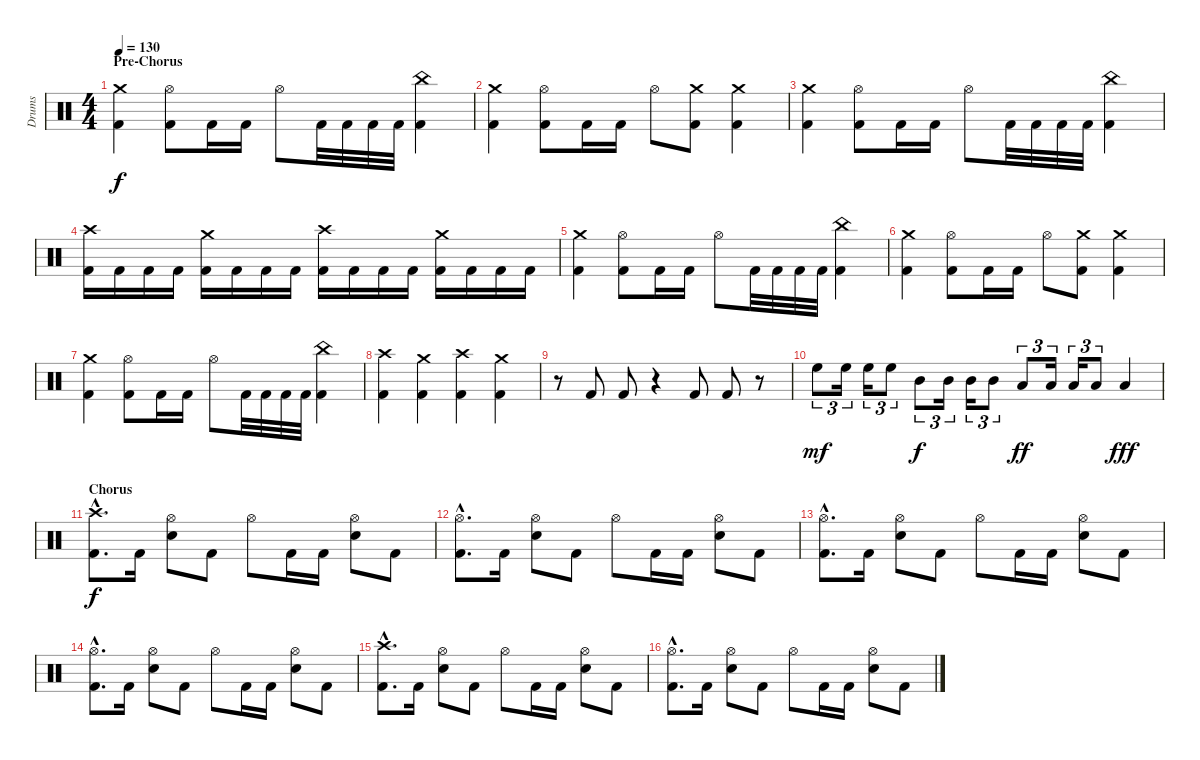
\track ("Drums" "Drums") {instrument percussion}
\staff {score}
\articulation defaults
\ts (4 4)
\section ("" "Pre-Chorus")
\tempo 130
\clef neutral
\ks c
("Crash medium (hit)" "Kick (hit) 2").4{dy f} ("Hi-Hat (open)" "Kick (hit) 2").8 "Kick (hit) 2".16 "Kick (hit) 2".16 "Hi-Hat (open)".8 "Kick (hit) 2".32 "Kick (hit) 2".32 "Kick (hit) 2".32 "Kick (hit) 2".32 ("China (hit)" "Kick (hit) 2").4 |
("Crash medium (hit)" "Kick (hit) 2").4 ("Hi-Hat (open)" "Kick (hit) 2").8 "Kick (hit) 2".16 "Kick (hit) 2".16 "Hi-Hat (open)".8 ("Crash medium (hit)" "Kick (hit) 2").8 ("Crash medium (hit)" "Kick (hit) 2").4 |
("Crash medium (hit)" "Kick (hit) 2").4 ("Hi-Hat (open)" "Kick (hit) 2").8 "Kick (hit) 2".16 "Kick (hit) 2".16 "Hi-Hat (open)".8 "Kick (hit) 2".32 "Kick (hit) 2".32 "Kick (hit) 2".32 "Kick (hit) 2".32 ("China (hit)" "Kick (hit) 2").4 |
("Crash high (hit)" "Kick (hit) 2").16 "Kick (hit) 2".16 "Kick (hit) 2".16 "Kick (hit) 2".16 ("Crash medium (hit)" "Kick (hit) 2").16 "Kick (hit) 2".16 "Kick (hit) 2".16 "Kick (hit) 2".16 ("Crash high (hit)" "Kick (hit) 2").16 "Kick (hit) 2".16 "Kick (hit) 2".16 "Kick (hit) 2".16 ("Crash medium (hit)" "Kick (hit) 2").16 "Kick (hit) 2".16 "Kick (hit) 2".16 "Kick (hit) 2".16 |
("Crash medium (hit)" "Kick (hit) 2").4 ("Hi-Hat (open)" "Kick (hit) 2").8 "Kick (hit) 2".16 "Kick (hit) 2".16 "Hi-Hat (open)".8 "Kick (hit) 2".32 "Kick (hit) 2".32 "Kick (hit) 2".32 "Kick (hit) 2".32 ("China (hit)" "Kick (hit) 2").4 |
("Crash medium (hit)" "Kick (hit) 2").4 ("Hi-Hat (open)" "Kick (hit) 2").8 "Kick (hit) 2".16 "Kick (hit) 2".16 "Hi-Hat (open)".8 ("Crash medium (hit)" "Kick (hit) 2").8 ("Crash medium (hit)" "Kick (hit) 2").4 |
("Crash medium (hit)" "Kick (hit) 2").4 ("Hi-Hat (open)" "Kick (hit) 2").8 "Kick (hit) 2".16 "Kick (hit) 2".16 "Hi-Hat (open)".8 "Kick (hit) 2".32 "Kick (hit) 2".32 "Kick (hit) 2".32 "Kick (hit) 2".32 ("China (hit)" "Kick (hit) 2").4 |
("Crash high (hit)" "Kick (hit) 2").4 ("Crash medium (hit)" "Kick (hit) 2").4 ("Crash high (hit)" "Kick (hit) 2").4 ("Crash medium (hit)" "Kick (hit) 2").4 |
r.8 "Kick (hit) 2".8 "Kick (hit) 2".8 r.4 "Kick (hit) 2".8 "Kick (hit) 2".8 r.8 |
"High Floor Tom (hit)".8{tu (3 2) dy mf} "High Floor Tom (hit)".16{tu (3 2)} "High Floor Tom (hit)".16{tu (3 2)} "High Floor Tom (hit)".8{tu (3 2)} "Mid Tom (hit)".8{tu (3 2) dy f} "Mid Tom (hit)".16{tu (3 2)} "Mid Tom (hit)".16{tu (3 2)} "Mid Tom (hit)".8{tu (3 2)} "Low Tom (hit)".8{tu (3 2) dy ff} "Low Tom (hit)".16{tu (3 2)} "Low Tom (hit)".16{tu (3 2)} "Low Tom (hit)".8{tu (3 2)} "Low Floor Tom (hit)".4{dy fff} |
\section ("" "Chorus")
("Crash high (hit)"{hac} "Kick (hit) 2"{hac}).8{d dy f} "Kick (hit) 2".16 ("Hi-Hat (open)" "Snare (hit) 2").8 "Kick (hit) 2".8 "Hi-Hat (open)".8 "Kick (hit) 2".16 "Kick (hit) 2".16 ("Hi-Hat (open)" "Snare (hit) 2").8 "Kick (hit) 2".8 |
("Hi-Hat (open)"{hac} "Kick (hit) 2"{hac}).8{d} "Kick (hit) 2".16 ("Hi-Hat (open)" "Snare (hit) 2").8 "Kick (hit) 2".8 "Hi-Hat (open)".8 "Kick (hit) 2".16 "Kick (hit) 2".16 ("Hi-Hat (open)" "Snare (hit) 2").8 "Kick (hit) 2".8 |
("Hi-Hat (open)"{hac} "Kick (hit) 2"{hac}).8{d} "Kick (hit) 2".16 ("Hi-Hat (open)" "Snare (hit) 2").8 "Kick (hit) 2".8 "Hi-Hat (open)".8 "Kick (hit) 2".16 "Kick (hit) 2".16 ("Hi-Hat (open)" "Snare (hit) 2").8 "Kick (hit) 2".8 |
("Hi-Hat (open)"{hac} "Kick (hit) 2"{hac}).8{d} "Kick (hit) 2".16 ("Hi-Hat (open)" "Snare (hit) 2").8 "Kick (hit) 2".8 "Hi-Hat (open)".8 "Kick (hit) 2".16 "Kick (hit) 2".16 ("Hi-Hat (open)" "Snare (hit) 2").8 "Kick (hit) 2".8 |
("Crash high (hit)"{hac} "Kick (hit) 2"{hac}).8{d} "Kick (hit) 2".16 ("Hi-Hat (open)" "Snare (hit) 2").8 "Kick (hit) 2".8 "Hi-Hat (open)".8 "Kick (hit) 2".16 "Kick (hit) 2".16 ("Hi-Hat (open)" "Snare (hit) 2").8 "Kick (hit) 2".8 |
("Hi-Hat (open)"{hac} "Kick (hit) 2"{hac}).8{d} "Kick (hit) 2".16 ("Hi-Hat (open)" "Snare (hit) 2").8 "Kick (hit) 2".8 "Hi-Hat (open)".8 "Kick (hit) 2".16 "Kick (hit) 2".16 ("Hi-Hat (open)" "Snare (hit) 2").8 "Kick (hit) 2".8
